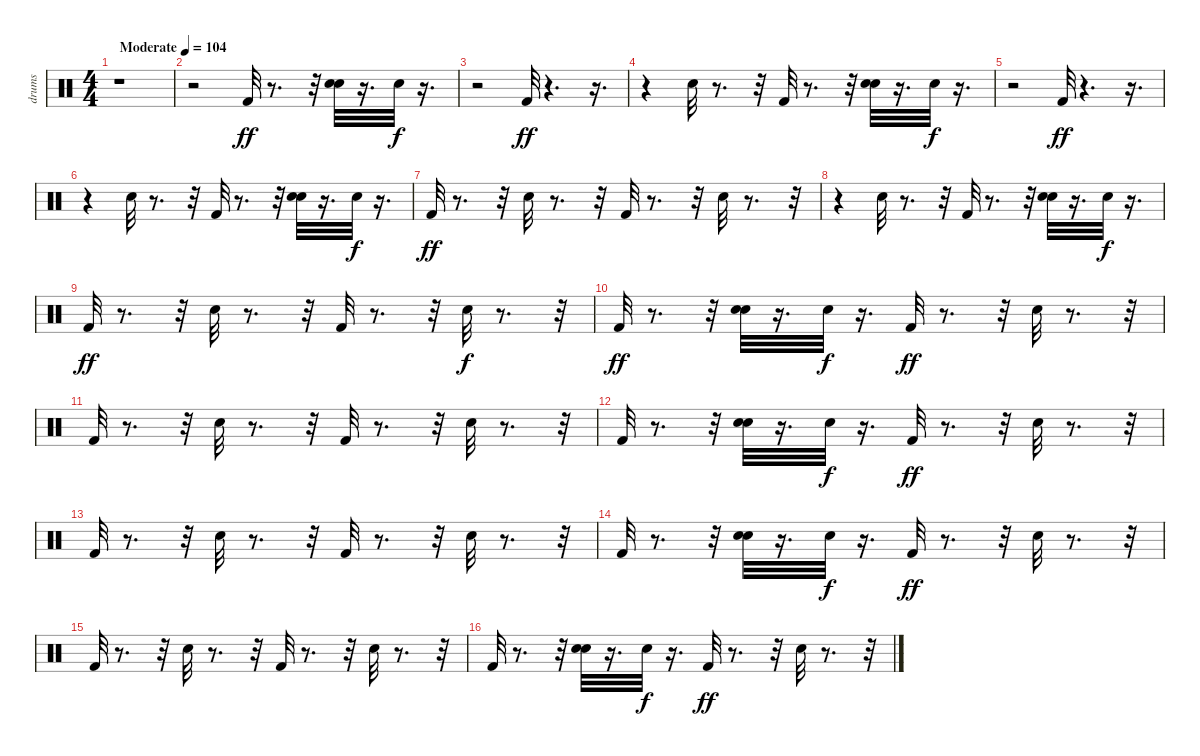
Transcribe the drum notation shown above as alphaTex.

\track ("drums" "drums") {instrument percussion}
\staff {score}
\articulation defaults
\ts (4 4)
\tempo (104 "Moderate")
\clef neutral
\ks c
r.1{dy ff} |
r.2 "Kick (hit) 2".32 r.8{d} r.32 ("Snare (hit) 2" "Hand Clap (hit)").32 r.16{d} "Hand Clap (hit)".32{dy f} r.16{d} |
r.2 "Kick (hit) 2".32{dy ff} r.4{d} r.16{d} |
r.4 "Snare (hit) 2".32 r.8{d} r.32 "Kick (hit) 2".32 r.8{d} r.32 ("Snare (hit) 2" "Hand Clap (hit)").32 r.16{d} "Hand Clap (hit)".32{dy f} r.16{d} |
r.2 "Kick (hit) 2".32{dy ff} r.4{d} r.16{d} |
r.4 "Snare (hit) 2".32 r.8{d} r.32 "Kick (hit) 2".32 r.8{d} r.32 ("Snare (hit) 2" "Hand Clap (hit)").32 r.16{d} "Hand Clap (hit)".32{dy f} r.16{d} |
"Kick (hit) 2".32{dy ff} r.8{d} r.32 "Snare (hit) 2".32 r.8{d} r.32 "Kick (hit) 2".32 r.8{d} r.32 "Snare (hit) 2".32 r.8{d} r.32 |
r.4 "Snare (hit) 2".32 r.8{d} r.32 "Kick (hit) 2".32 r.8{d} r.32 ("Snare (hit) 2" "Hand Clap (hit)").32 r.16{d} "Hand Clap (hit)".32{dy f} r.16{d} |
"Kick (hit) 2".32{dy ff} r.8{d} r.32 "Snare (hit) 2".32 r.8{d} r.32 "Kick (hit) 2".32 r.8{d} r.32 "Snare (hit) 2".32{dy f} r.8{d} r.32 |
"Kick (hit) 2".32{dy ff} r.8{d} r.32 ("Snare (hit) 2" "Hand Clap (hit)").32 r.16{d} "Hand Clap (hit)".32{dy f} r.16{d} "Kick (hit) 2".32{dy ff} r.8{d} r.32 "Snare (hit) 2".32 r.8{d} r.32 |
"Kick (hit) 2".32 r.8{d} r.32 "Snare (hit) 2".32 r.8{d} r.32 "Kick (hit) 2".32 r.8{d} r.32 "Snare (hit) 2".32 r.8{d} r.32 |
"Kick (hit) 2".32 r.8{d} r.32 ("Snare (hit) 2" "Hand Clap (hit)").32 r.16{d} "Hand Clap (hit)".32{dy f} r.16{d} "Kick (hit) 2".32{dy ff} r.8{d} r.32 "Snare (hit) 2".32 r.8{d} r.32 |
"Kick (hit) 2".32 r.8{d} r.32 "Snare (hit) 2".32 r.8{d} r.32 "Kick (hit) 2".32 r.8{d} r.32 "Snare (hit) 2".32 r.8{d} r.32 |
"Kick (hit) 2".32 r.8{d} r.32 ("Snare (hit) 2" "Hand Clap (hit)").32 r.16{d} "Hand Clap (hit)".32{dy f} r.16{d} "Kick (hit) 2".32{dy ff} r.8{d} r.32 "Snare (hit) 2".32 r.8{d} r.32 |
"Kick (hit) 2".32 r.8{d} r.32 "Snare (hit) 2".32 r.8{d} r.32 "Kick (hit) 2".32 r.8{d} r.32 "Snare (hit) 2".32 r.8{d} r.32 |
"Kick (hit) 2".32 r.8{d} r.32 ("Snare (hit) 2" "Hand Clap (hit)").32 r.16{d} "Hand Clap (hit)".32{dy f} r.16{d} "Kick (hit) 2".32{dy ff} r.8{d} r.32 "Snare (hit) 2".32 r.8{d} r.32
